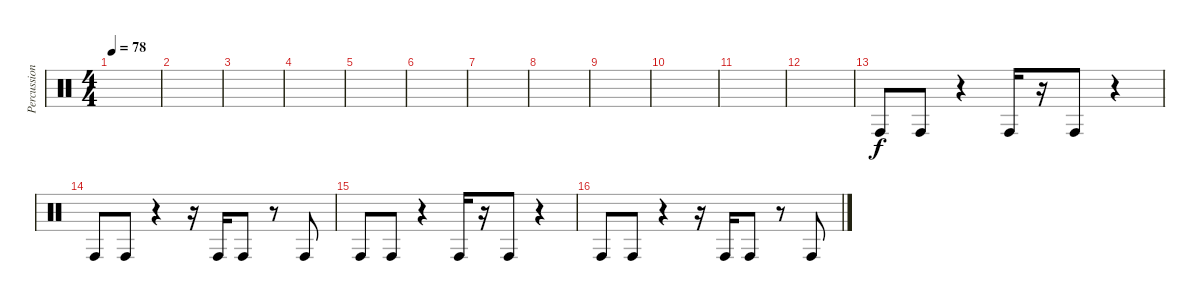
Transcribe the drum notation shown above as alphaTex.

\track ("Percussion" "Percussion") {instrument percussion}
\staff {score}
\articulation defaults
\ts (4 4)
\tempo 78
\clef neutral
\ks c
|
|
|
|
|
|
|
|
|
|
|
|
"Conga high (hit)".8 "Conga high (hit)".8 r.4 "Conga high (hit)".16 r.16 "Conga high (hit)".8 r.4 |
"Conga high (hit)".8 "Conga high (hit)".8 r.4 r.16 "Conga high (hit)".16 "Conga high (hit)".8 r.8 "Conga high (hit)".8 |
"Conga high (hit)".8 "Conga high (hit)".8 r.4 "Conga high (hit)".16 r.16 "Conga high (hit)".8 r.4 |
"Conga high (hit)".8 "Conga high (hit)".8 r.4 r.16 "Conga high (hit)".16 "Conga high (hit)".8 r.8 "Conga high (hit)".8
